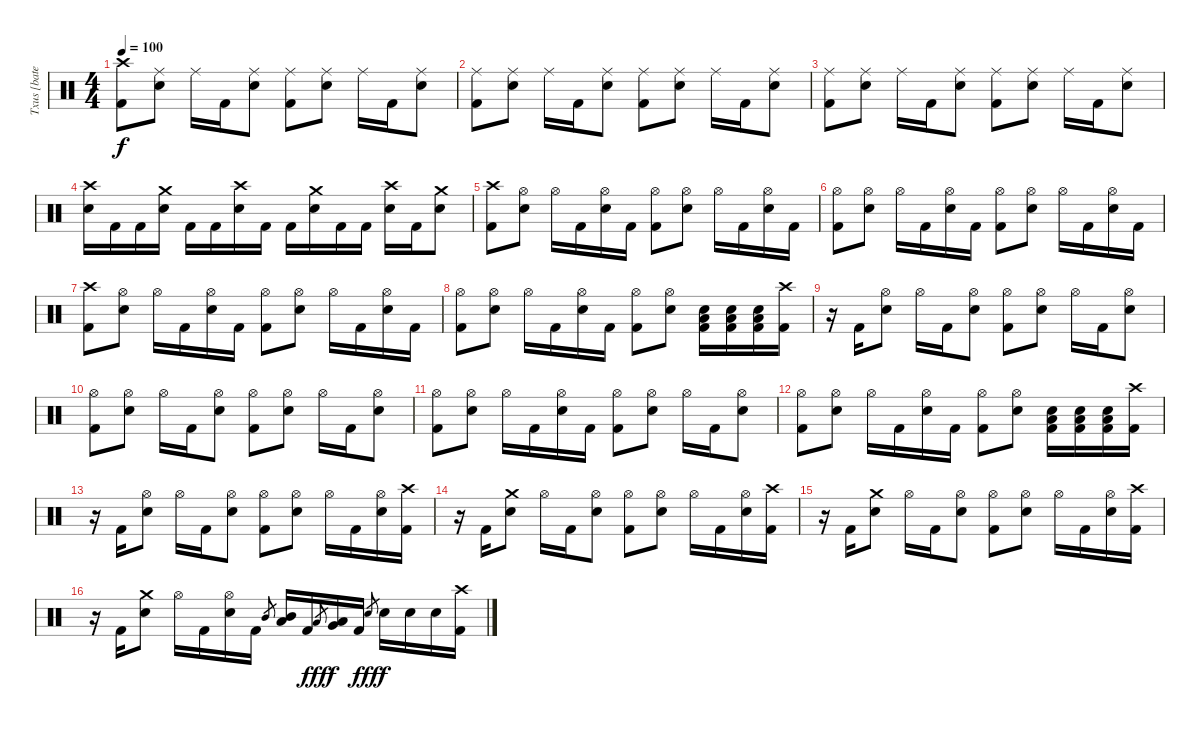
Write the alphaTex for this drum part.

\track ("Txus [bateria]" "Txus [bate") {instrument percussion}
\staff {score}
\articulation defaults
\ts (4 4)
\tempo 100
\clef neutral
\ks c
("Crash high (hit)" "Kick (hit) 2").8{dy f} ("Ride (middle)" "Snare (hit) 2").8 "Ride (middle)".16 "Kick (hit) 2".16 ("Ride (middle)" "Snare (hit) 2").8 ("Ride (middle)" "Kick (hit) 2").8 ("Ride (middle)" "Snare (hit) 2").8 "Ride (middle)".16 "Kick (hit) 2".16 ("Ride (middle)" "Snare (hit) 2").8 |
("Ride (middle)" "Kick (hit) 2").8 ("Ride (middle)" "Snare (hit) 2").8 "Ride (middle)".16 "Kick (hit) 2".16 ("Ride (middle)" "Snare (hit) 2").8 ("Ride (middle)" "Kick (hit) 2").8 ("Ride (middle)" "Snare (hit) 2").8 "Ride (middle)".16 "Kick (hit) 2".16 ("Ride (middle)" "Snare (hit) 2").8 |
("Ride (middle)" "Kick (hit) 2").8 ("Ride (middle)" "Snare (hit) 2").8 "Ride (middle)".16 "Kick (hit) 2".16 ("Ride (middle)" "Snare (hit) 2").8 ("Ride (middle)" "Kick (hit) 2").8 ("Ride (middle)" "Snare (hit) 2").8 "Ride (middle)".16 "Kick (hit) 2".16 ("Ride (middle)" "Snare (hit) 2").8 |
("Crash high (hit)" "Snare (hit) 2").16 "Kick (hit) 2".16 "Kick (hit) 2".16 ("Crash medium (hit)" "Snare (hit) 2").16 "Kick (hit) 2".16 "Kick (hit) 2".16 ("Crash high (hit)" "Snare (hit) 2").16 "Kick (hit) 2".16 "Kick (hit) 2".16 ("Crash medium (hit)" "Snare (hit) 2").16 "Kick (hit) 2".16 "Kick (hit) 2".16 ("Crash high (hit)" "Snare (hit) 2").16 "Kick (hit) 2".16 ("Crash medium (hit)" "Snare (hit) 2").8 |
("Crash high (hit)" "Kick (hit) 2").8 ("Hi-Hat (open)" "Snare (hit) 2").8 "Hi-Hat (open)".16 "Kick (hit) 2".16 ("Hi-Hat (open)" "Snare (hit) 2").16 "Kick (hit) 2".16 ("Hi-Hat (open)" "Kick (hit) 2").8 ("Hi-Hat (open)" "Snare (hit) 2").8 "Hi-Hat (open)".16 "Kick (hit) 2".16 ("Hi-Hat (open)" "Snare (hit) 2").16 "Kick (hit) 2".16 |
("Hi-Hat (open)" "Kick (hit) 2").8 ("Hi-Hat (open)" "Snare (hit) 2").8 "Hi-Hat (open)".16 "Kick (hit) 2".16 ("Hi-Hat (open)" "Snare (hit) 2").16 "Kick (hit) 2".16 ("Hi-Hat (open)" "Kick (hit) 2").8 ("Hi-Hat (open)" "Snare (hit) 2").8 "Hi-Hat (open)".16 "Kick (hit) 2".16 ("Hi-Hat (open)" "Snare (hit) 2").16 "Kick (hit) 2".16 |
("Crash high (hit)" "Kick (hit) 2").8 ("Hi-Hat (open)" "Snare (hit) 2").8 "Hi-Hat (open)".16 "Kick (hit) 2".16 ("Hi-Hat (open)" "Snare (hit) 2").16 "Kick (hit) 2".16 ("Hi-Hat (open)" "Kick (hit) 2").8 ("Hi-Hat (open)" "Snare (hit) 2").8 "Hi-Hat (open)".16 "Kick (hit) 2".16 ("Hi-Hat (open)" "Snare (hit) 2").16 "Kick (hit) 2".16 |
("Hi-Hat (open)" "Kick (hit) 2").8 ("Hi-Hat (open)" "Snare (hit) 2").8 "Hi-Hat (open)".16 "Kick (hit) 2".16 ("Hi-Hat (open)" "Snare (hit) 2").16 "Kick (hit) 2".16 ("Hi-Hat (open)" "Kick (hit) 2").8 ("Hi-Hat (open)" "Snare (hit) 2").8 ("Low Floor Tom (hit)" "Snare (hit) 2" "Kick (hit) 2").16 ("Low Floor Tom (hit)" "Snare (hit) 2" "Kick (hit) 2").16 ("Low Floor Tom (hit)" "Snare (hit) 2" "Kick (hit) 2").16 ("Crash high (hit)" "Kick (hit) 2").16 |
r.16 "Kick (hit) 2".16 ("Hi-Hat (open)" "Snare (hit) 2").8 "Hi-Hat (open)".16 "Kick (hit) 2".16 ("Hi-Hat (open)" "Snare (hit) 2").8 ("Hi-Hat (open)" "Kick (hit) 2").8 ("Hi-Hat (open)" "Snare (hit) 2").8 "Hi-Hat (open)".16 "Kick (hit) 2".16 ("Hi-Hat (open)" "Snare (hit) 2").8 |
("Hi-Hat (open)" "Kick (hit) 2").8 ("Hi-Hat (open)" "Snare (hit) 2").8 "Hi-Hat (open)".16 "Kick (hit) 2".16 ("Hi-Hat (open)" "Snare (hit) 2").8 ("Hi-Hat (open)" "Kick (hit) 2").8 ("Hi-Hat (open)" "Snare (hit) 2").8 "Hi-Hat (open)".16 "Kick (hit) 2".16 ("Hi-Hat (open)" "Snare (hit) 2").8 |
("Hi-Hat (open)" "Kick (hit) 2").8 ("Hi-Hat (open)" "Snare (hit) 2").8 "Hi-Hat (open)".16 "Kick (hit) 2".16 ("Hi-Hat (open)" "Snare (hit) 2").16 "Kick (hit) 2".16 ("Hi-Hat (open)" "Kick (hit) 2").8 ("Hi-Hat (open)" "Snare (hit) 2").8 "Hi-Hat (open)".16 "Kick (hit) 2".16 ("Hi-Hat (open)" "Snare (hit) 2").8 |
("Hi-Hat (open)" "Kick (hit) 2").8 ("Hi-Hat (open)" "Snare (hit) 2").8 "Hi-Hat (open)".16 "Kick (hit) 2".16 ("Hi-Hat (open)" "Snare (hit) 2").16 "Kick (hit) 2".16 ("Hi-Hat (open)" "Kick (hit) 2").8 ("Hi-Hat (open)" "Snare (hit) 2").8 ("Low Floor Tom (hit)" "Snare (hit) 2" "Kick (hit) 2").16 ("Low Floor Tom (hit)" "Snare (hit) 2" "Kick (hit) 2").16 ("Low Floor Tom (hit)" "Snare (hit) 2" "Kick (hit) 2").16 ("Crash high (hit)" "Kick (hit) 2").16 |
r.16 "Kick (hit) 2".16 ("Hi-Hat (open)" "Snare (hit) 2").8 "Hi-Hat (open)".16 "Kick (hit) 2".16 ("Hi-Hat (open)" "Snare (hit) 2").8 ("Hi-Hat (open)" "Kick (hit) 2").8 ("Hi-Hat (open)" "Snare (hit) 2").8 "Hi-Hat (open)".16 "Kick (hit) 2".16 ("Hi-Hat (open)" "Snare (hit) 2").16 ("Crash high (hit)" "Kick (hit) 2").16 |
r.16 "Kick (hit) 2".16 ("Crash medium (hit)" "Snare (hit) 2").8 "Hi-Hat (open)".16 "Kick (hit) 2".16 ("Hi-Hat (open)" "Snare (hit) 2").8 ("Hi-Hat (open)" "Kick (hit) 2").8 ("Hi-Hat (open)" "Snare (hit) 2").8 "Hi-Hat (open)".16 "Kick (hit) 2".16 ("Hi-Hat (open)" "Snare (hit) 2").16 ("Crash high (hit)" "Kick (hit) 2").16 |
r.16 "Kick (hit) 2".16 ("Crash medium (hit)" "Snare (hit) 2").8 "Hi-Hat (open)".16 "Kick (hit) 2".16 ("Hi-Hat (open)" "Snare (hit) 2").8 ("Hi-Hat (open)" "Kick (hit) 2").8 ("Hi-Hat (open)" "Snare (hit) 2").8 "Hi-Hat (open)".16 "Kick (hit) 2".16 ("Hi-Hat (open)" "Snare (hit) 2").16 ("Crash high (hit)" "Kick (hit) 2").16 |
r.16 "Kick (hit) 2".16 ("Crash medium (hit)" "Snare (hit) 2").8 "Hi-Hat (open)".16 "Kick (hit) 2".16 ("Hi-Hat (open)" "Snare (hit) 2").16 "Kick (hit) 2".16 "Mid Tom (hit)".8{gr} ("Mid Tom (hit)" "Low Tom (hit)").16 "Kick (hit) 2".16 "Low Tom (hit)".8{gr dy fff} ("Low Tom (hit)" "Very Low Tom (hit)").16{dy f} "Kick (hit) 2".16 "Snare (hit) 2".8{gr dy fff} "Snare (hit) 2".16{dy f} "Snare (hit) 2".16 "Snare (hit) 2".16 ("Crash high (hit)" "Kick (hit) 2").16
